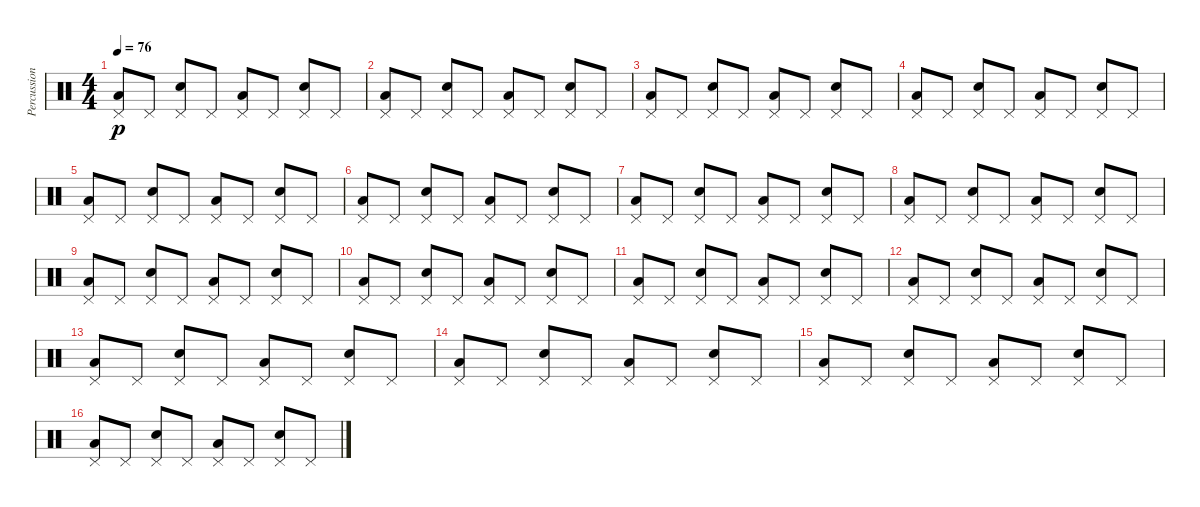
\track ("Percussion" "Percussion") {instrument percussion}
\staff {score}
\articulation defaults
\ts (4 4)
\tempo 76
\clef neutral
\ks c
("Low Floor Tom (hit)" "Pedal Hi-Hat (hit)").8{dy p} "Pedal Hi-Hat (hit)".8 ("Electric Snare (hit)" "Pedal Hi-Hat (hit)").8 "Pedal Hi-Hat (hit)".8 ("Low Floor Tom (hit)" "Pedal Hi-Hat (hit)").8 "Pedal Hi-Hat (hit)".8 ("Electric Snare (hit)" "Pedal Hi-Hat (hit)").8 "Pedal Hi-Hat (hit)".8 |
("Low Floor Tom (hit)" "Pedal Hi-Hat (hit)").8 "Pedal Hi-Hat (hit)".8 ("Electric Snare (hit)" "Pedal Hi-Hat (hit)").8 "Pedal Hi-Hat (hit)".8 ("Low Floor Tom (hit)" "Pedal Hi-Hat (hit)").8 "Pedal Hi-Hat (hit)".8 ("Electric Snare (hit)" "Pedal Hi-Hat (hit)").8 "Pedal Hi-Hat (hit)".8 |
("Low Floor Tom (hit)" "Pedal Hi-Hat (hit)").8 "Pedal Hi-Hat (hit)".8 ("Electric Snare (hit)" "Pedal Hi-Hat (hit)").8 "Pedal Hi-Hat (hit)".8 ("Low Floor Tom (hit)" "Pedal Hi-Hat (hit)").8 "Pedal Hi-Hat (hit)".8 ("Electric Snare (hit)" "Pedal Hi-Hat (hit)").8 "Pedal Hi-Hat (hit)".8 |
("Low Floor Tom (hit)" "Pedal Hi-Hat (hit)").8 "Pedal Hi-Hat (hit)".8 ("Electric Snare (hit)" "Pedal Hi-Hat (hit)").8 "Pedal Hi-Hat (hit)".8 ("Low Floor Tom (hit)" "Pedal Hi-Hat (hit)").8 "Pedal Hi-Hat (hit)".8 ("Electric Snare (hit)" "Pedal Hi-Hat (hit)").8 "Pedal Hi-Hat (hit)".8 |
("Low Floor Tom (hit)" "Pedal Hi-Hat (hit)").8 "Pedal Hi-Hat (hit)".8 ("Electric Snare (hit)" "Pedal Hi-Hat (hit)").8 "Pedal Hi-Hat (hit)".8 ("Low Floor Tom (hit)" "Pedal Hi-Hat (hit)").8 "Pedal Hi-Hat (hit)".8 ("Electric Snare (hit)" "Pedal Hi-Hat (hit)").8 "Pedal Hi-Hat (hit)".8 |
("Low Floor Tom (hit)" "Pedal Hi-Hat (hit)").8 "Pedal Hi-Hat (hit)".8 ("Electric Snare (hit)" "Pedal Hi-Hat (hit)").8 "Pedal Hi-Hat (hit)".8 ("Low Floor Tom (hit)" "Pedal Hi-Hat (hit)").8 "Pedal Hi-Hat (hit)".8 ("Electric Snare (hit)" "Pedal Hi-Hat (hit)").8 "Pedal Hi-Hat (hit)".8 |
("Low Floor Tom (hit)" "Pedal Hi-Hat (hit)").8 "Pedal Hi-Hat (hit)".8 ("Electric Snare (hit)" "Pedal Hi-Hat (hit)").8 "Pedal Hi-Hat (hit)".8 ("Low Floor Tom (hit)" "Pedal Hi-Hat (hit)").8 "Pedal Hi-Hat (hit)".8 ("Electric Snare (hit)" "Pedal Hi-Hat (hit)").8 "Pedal Hi-Hat (hit)".8 |
("Low Floor Tom (hit)" "Pedal Hi-Hat (hit)").8 "Pedal Hi-Hat (hit)".8 ("Electric Snare (hit)" "Pedal Hi-Hat (hit)").8 "Pedal Hi-Hat (hit)".8 ("Low Floor Tom (hit)" "Pedal Hi-Hat (hit)").8 "Pedal Hi-Hat (hit)".8 ("Electric Snare (hit)" "Pedal Hi-Hat (hit)").8 "Pedal Hi-Hat (hit)".8 |
("Low Floor Tom (hit)" "Pedal Hi-Hat (hit)").8 "Pedal Hi-Hat (hit)".8 ("Electric Snare (hit)" "Pedal Hi-Hat (hit)").8 "Pedal Hi-Hat (hit)".8 ("Low Floor Tom (hit)" "Pedal Hi-Hat (hit)").8 "Pedal Hi-Hat (hit)".8 ("Electric Snare (hit)" "Pedal Hi-Hat (hit)").8 "Pedal Hi-Hat (hit)".8 |
("Low Floor Tom (hit)" "Pedal Hi-Hat (hit)").8 "Pedal Hi-Hat (hit)".8 ("Electric Snare (hit)" "Pedal Hi-Hat (hit)").8 "Pedal Hi-Hat (hit)".8 ("Low Floor Tom (hit)" "Pedal Hi-Hat (hit)").8 "Pedal Hi-Hat (hit)".8 ("Electric Snare (hit)" "Pedal Hi-Hat (hit)").8 "Pedal Hi-Hat (hit)".8 |
("Low Floor Tom (hit)" "Pedal Hi-Hat (hit)").8 "Pedal Hi-Hat (hit)".8 ("Electric Snare (hit)" "Pedal Hi-Hat (hit)").8 "Pedal Hi-Hat (hit)".8 ("Low Floor Tom (hit)" "Pedal Hi-Hat (hit)").8 "Pedal Hi-Hat (hit)".8 ("Electric Snare (hit)" "Pedal Hi-Hat (hit)").8 "Pedal Hi-Hat (hit)".8 |
("Low Floor Tom (hit)" "Pedal Hi-Hat (hit)").8 "Pedal Hi-Hat (hit)".8 ("Electric Snare (hit)" "Pedal Hi-Hat (hit)").8 "Pedal Hi-Hat (hit)".8 ("Low Floor Tom (hit)" "Pedal Hi-Hat (hit)").8 "Pedal Hi-Hat (hit)".8 ("Electric Snare (hit)" "Pedal Hi-Hat (hit)").8 "Pedal Hi-Hat (hit)".8 |
("Low Floor Tom (hit)" "Pedal Hi-Hat (hit)").8 "Pedal Hi-Hat (hit)".8 ("Electric Snare (hit)" "Pedal Hi-Hat (hit)").8 "Pedal Hi-Hat (hit)".8 ("Low Floor Tom (hit)" "Pedal Hi-Hat (hit)").8 "Pedal Hi-Hat (hit)".8 ("Electric Snare (hit)" "Pedal Hi-Hat (hit)").8 "Pedal Hi-Hat (hit)".8 |
("Low Floor Tom (hit)" "Pedal Hi-Hat (hit)").8 "Pedal Hi-Hat (hit)".8 ("Electric Snare (hit)" "Pedal Hi-Hat (hit)").8 "Pedal Hi-Hat (hit)".8 ("Low Floor Tom (hit)" "Pedal Hi-Hat (hit)").8 "Pedal Hi-Hat (hit)".8 ("Electric Snare (hit)" "Pedal Hi-Hat (hit)").8 "Pedal Hi-Hat (hit)".8 |
("Low Floor Tom (hit)" "Pedal Hi-Hat (hit)").8 "Pedal Hi-Hat (hit)".8 ("Electric Snare (hit)" "Pedal Hi-Hat (hit)").8 "Pedal Hi-Hat (hit)".8 ("Low Floor Tom (hit)" "Pedal Hi-Hat (hit)").8 "Pedal Hi-Hat (hit)".8 ("Electric Snare (hit)" "Pedal Hi-Hat (hit)").8 "Pedal Hi-Hat (hit)".8 |
("Low Floor Tom (hit)" "Pedal Hi-Hat (hit)").8 "Pedal Hi-Hat (hit)".8 ("Electric Snare (hit)" "Pedal Hi-Hat (hit)").8 "Pedal Hi-Hat (hit)".8 ("Low Floor Tom (hit)" "Pedal Hi-Hat (hit)").8 "Pedal Hi-Hat (hit)".8 ("Electric Snare (hit)" "Pedal Hi-Hat (hit)").8 "Pedal Hi-Hat (hit)".8
